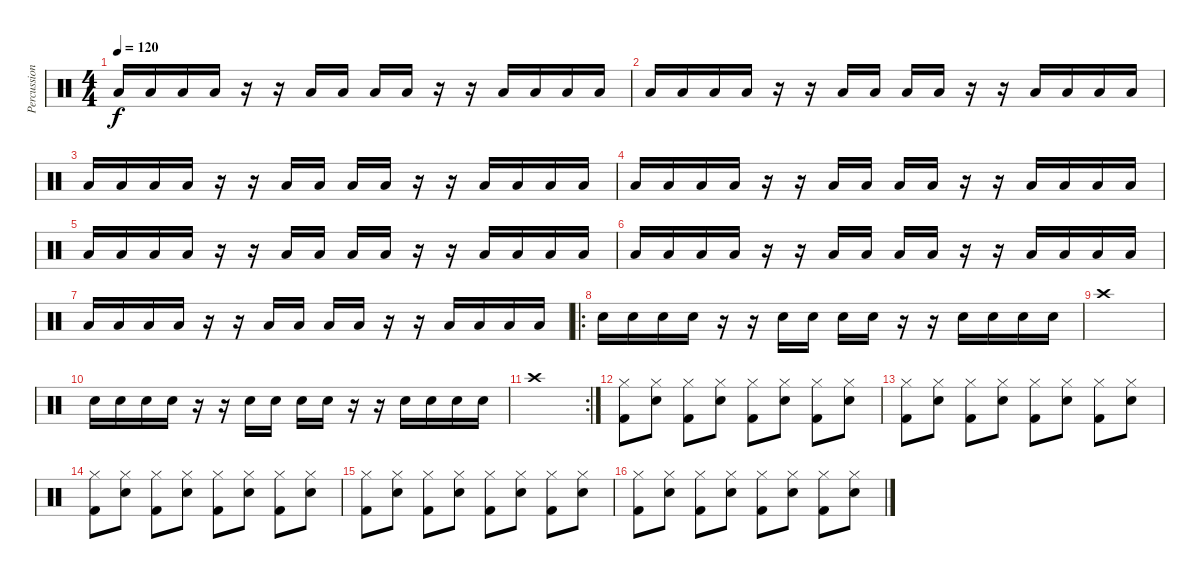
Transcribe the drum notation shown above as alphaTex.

\track ("Percussions" "Percussion") {instrument percussion}
\staff {score}
\articulation defaults
\ts (4 4)
\tempo 120
\clef neutral
\ks c "Low Floor Tom (hit)".16{dy f} "Low Floor Tom (hit)".16 "Low Floor Tom (hit)".16 "Low Floor Tom (hit)".16
r.16 r.16 "Low Floor Tom (hit)".16 "Low Floor Tom (hit)".16 "Low Floor Tom (hit)".16 "Low Floor Tom (hit)".16 r.16 r.16 "Low Floor Tom (hit)".16 "Low Floor Tom (hit)".16 "Low Floor Tom (hit)".16 "Low Floor Tom (hit)".16 |
"Low Floor Tom (hit)".16 "Low Floor Tom (hit)".16 "Low Floor Tom (hit)".16 "Low Floor Tom (hit)".16 r.16 r.16 "Low Floor Tom (hit)".16 "Low Floor Tom (hit)".16 "Low Floor Tom (hit)".16 "Low Floor Tom (hit)".16 r.16 r.16 "Low Floor Tom (hit)".16 "Low Floor Tom (hit)".16 "Low Floor Tom (hit)".16 "Low Floor Tom (hit)".16 |
"Low Floor Tom (hit)".16 "Low Floor Tom (hit)".16 "Low Floor Tom (hit)".16 "Low Floor Tom (hit)".16 r.16 r.16 "Low Floor Tom (hit)".16 "Low Floor Tom (hit)".16 "Low Floor Tom (hit)".16 "Low Floor Tom (hit)".16 r.16 r.16 "Low Floor Tom (hit)".16 "Low Floor Tom (hit)".16 "Low Floor Tom (hit)".16 "Low Floor Tom (hit)".16 |
"Low Floor Tom (hit)".16 "Low Floor Tom (hit)".16 "Low Floor Tom (hit)".16 "Low Floor Tom (hit)".16 r.16 r.16 "Low Floor Tom (hit)".16 "Low Floor Tom (hit)".16 "Low Floor Tom (hit)".16 "Low Floor Tom (hit)".16 r.16 r.16 "Low Floor Tom (hit)".16 "Low Floor Tom (hit)".16 "Low Floor Tom (hit)".16 "Low Floor Tom (hit)".16 |
"Low Floor Tom (hit)".16 "Low Floor Tom (hit)".16 "Low Floor Tom (hit)".16 "Low Floor Tom (hit)".16 r.16 r.16 "Low Floor Tom (hit)".16 "Low Floor Tom (hit)".16 "Low Floor Tom (hit)".16 "Low Floor Tom (hit)".16 r.16 r.16 "Low Floor Tom (hit)".16 "Low Floor Tom (hit)".16 "Low Floor Tom (hit)".16 "Low Floor Tom (hit)".16 |
"Low Floor Tom (hit)".16 "Low Floor Tom (hit)".16 "Low Floor Tom (hit)".16 "Low Floor Tom (hit)".16 r.16 r.16 "Low Floor Tom (hit)".16 "Low Floor Tom (hit)".16 "Low Floor Tom (hit)".16 "Low Floor Tom (hit)".16 r.16 r.16 "Low Floor Tom (hit)".16 "Low Floor Tom (hit)".16 "Low Floor Tom (hit)".16 "Low Floor Tom (hit)".16 |
"Low Floor Tom (hit)".16 "Low Floor Tom (hit)".16 "Low Floor Tom (hit)".16 "Low Floor Tom (hit)".16 r.16 r.16 "Low Floor Tom (hit)".16 "Low Floor Tom (hit)".16 "Low Floor Tom (hit)".16 "Low Floor Tom (hit)".16 r.16 r.16 "Low Floor Tom (hit)".16 "Low Floor Tom (hit)".16 "Low Floor Tom (hit)".16 "Low Floor Tom (hit)".16 |
\ro "Snare (hit) 2".16 "Snare (hit) 2".16 "Snare (hit) 2".16 "Snare (hit) 2".16
r.16 r.16 "Snare (hit) 2".16 "Snare (hit) 2".16 "Snare (hit) 2".16 "Snare (hit) 2".16 r.16 r.16 "Snare (hit) 2".16 "Snare (hit) 2".16 "Snare (hit) 2".16 "Snare (hit) 2".16 |
"Crash high (hit)".1 |
"Snare (hit) 2".16 "Snare (hit) 2".16 "Snare (hit) 2".16 "Snare (hit) 2".16 r.16 r.16 "Snare (hit) 2".16 "Snare (hit) 2".16 "Snare (hit) 2".16 "Snare (hit) 2".16 r.16 r.16 "Snare (hit) 2".16 "Snare (hit) 2".16 "Snare (hit) 2".16 "Snare (hit) 2".16 |
\rc 2 "Crash high (hit)".1
|
("Hi-Hat (closed)" "Kick (hit) 2").8 ("Hi-Hat (closed)" "Snare (hit) 2").8 ("Hi-Hat (closed)" "Kick (hit) 2").8 ("Hi-Hat (closed)" "Snare (hit) 2").8 ("Hi-Hat (closed)" "Kick (hit) 2").8 ("Hi-Hat (closed)" "Snare (hit) 2").8 ("Hi-Hat (closed)" "Kick (hit) 2").8 ("Hi-Hat (closed)" "Snare (hit) 2").8 |
("Hi-Hat (closed)" "Kick (hit) 2").8 ("Hi-Hat (closed)" "Snare (hit) 2").8 ("Hi-Hat (closed)" "Kick (hit) 2").8 ("Hi-Hat (closed)" "Snare (hit) 2").8 ("Hi-Hat (closed)" "Kick (hit) 2").8 ("Hi-Hat (closed)" "Snare (hit) 2").8 ("Hi-Hat (closed)" "Kick (hit) 2").8 ("Hi-Hat (closed)" "Snare (hit) 2").8 |
("Hi-Hat (closed)" "Kick (hit) 2").8 ("Hi-Hat (closed)" "Snare (hit) 2").8 ("Hi-Hat (closed)" "Kick (hit) 2").8 ("Hi-Hat (closed)" "Snare (hit) 2").8 ("Hi-Hat (closed)" "Kick (hit) 2").8 ("Hi-Hat (closed)" "Snare (hit) 2").8 ("Hi-Hat (closed)" "Kick (hit) 2").8 ("Hi-Hat (closed)" "Snare (hit) 2").8 |
("Hi-Hat (closed)" "Kick (hit) 2").8 ("Hi-Hat (closed)" "Snare (hit) 2").8 ("Hi-Hat (closed)" "Kick (hit) 2").8 ("Hi-Hat (closed)" "Snare (hit) 2").8 ("Hi-Hat (closed)" "Kick (hit) 2").8 ("Hi-Hat (closed)" "Snare (hit) 2").8 ("Hi-Hat (closed)" "Kick (hit) 2").8 ("Hi-Hat (closed)" "Snare (hit) 2").8 |
("Hi-Hat (closed)" "Kick (hit) 2").8 ("Hi-Hat (closed)" "Snare (hit) 2").8 ("Hi-Hat (closed)" "Kick (hit) 2").8 ("Hi-Hat (closed)" "Snare (hit) 2").8 ("Hi-Hat (closed)" "Kick (hit) 2").8 ("Hi-Hat (closed)" "Snare (hit) 2").8 ("Hi-Hat (closed)" "Kick (hit) 2").8 ("Hi-Hat (closed)" "Snare (hit) 2").8
